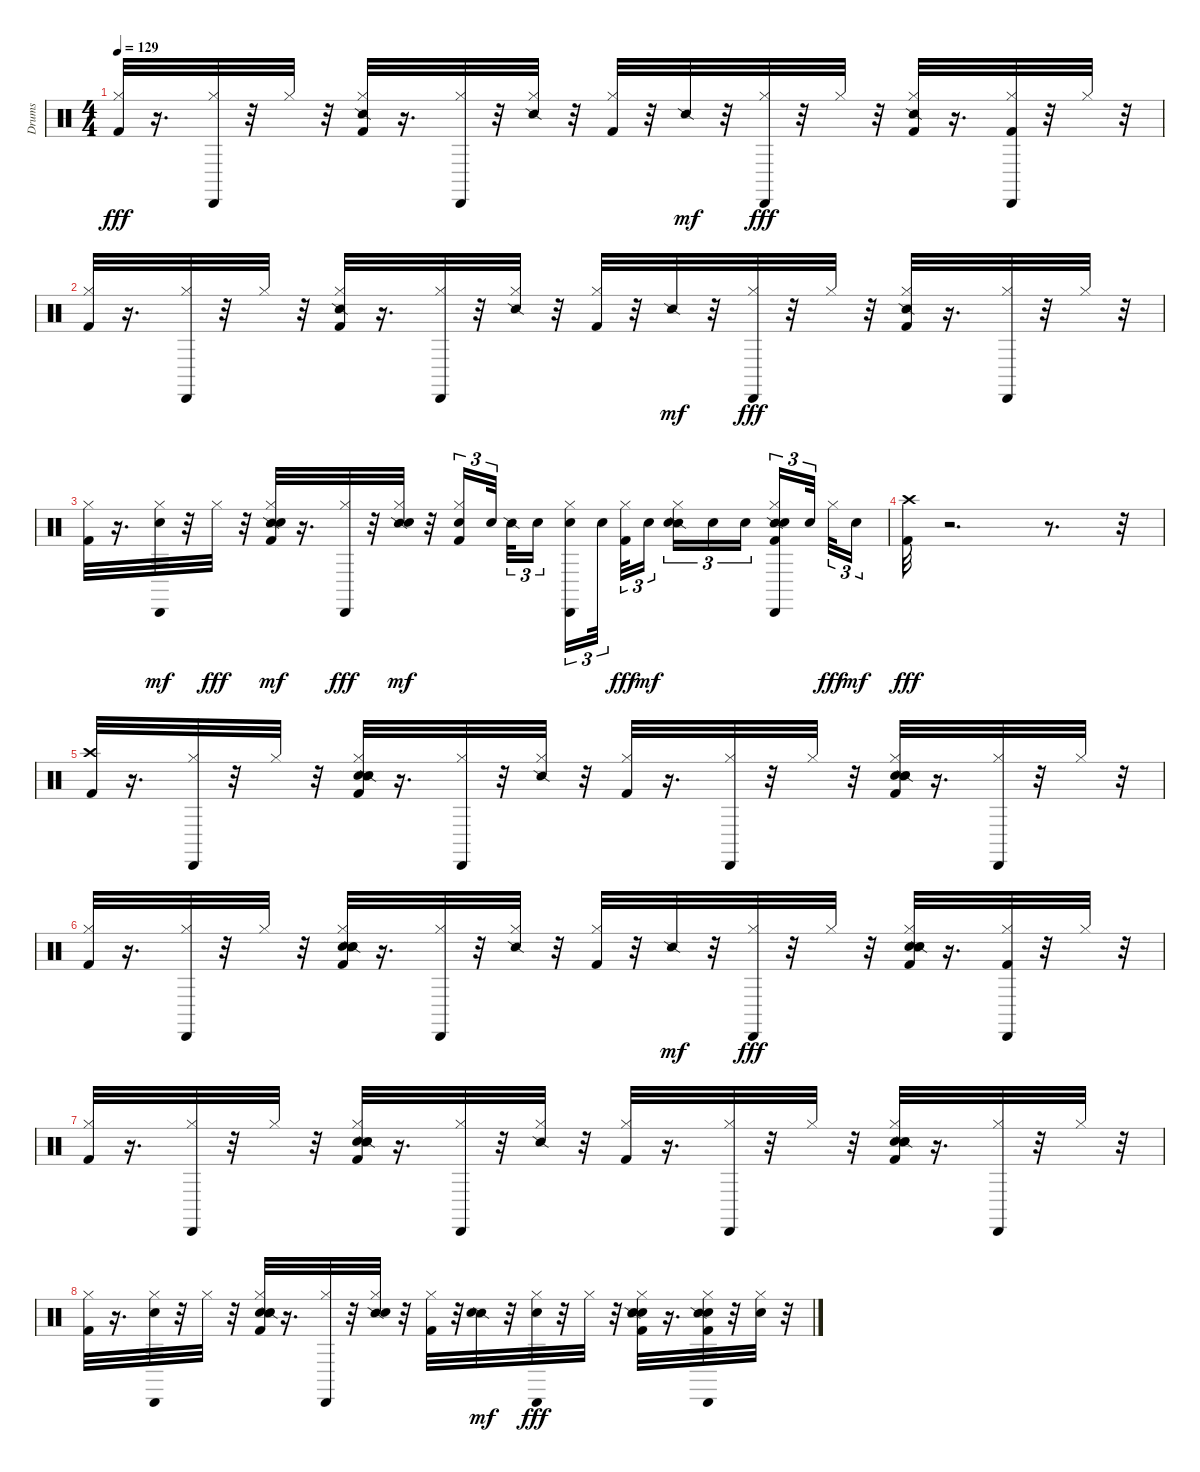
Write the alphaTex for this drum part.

\track ("Drums" "Drums") {instrument percussion}
\staff {score}
\articulation defaults
\ts (4 4)
\tempo 129
\clef neutral
\ks c
("Kick (hit) 2" "Hi-Hat (closed)").32{dy fff} r.16{d} ("Cabasa (hit)" "Hi-Hat (closed)").32 r.32 "Hi-Hat (closed)".32 r.32 ("Snare (side stick) 2" "Hi-Hat (closed)" "Kick (hit) 2").32 r.16{d} ("Cabasa (hit)" "Hi-Hat (closed)").32 r.32 ("Snare (side stick) 2" "Hi-Hat (closed)").32 r.32 ("Kick (hit) 2" "Hi-Hat (closed)").32 r.32 "Snare (side stick) 2".32{dy mf} r.32 ("Cabasa (hit)" "Hi-Hat (closed)").32{dy fff} r.32 "Hi-Hat (closed)".32 r.32 ("Snare (side stick) 2" "Hi-Hat (closed)" "Kick (hit) 2").32 r.16{d} ("Kick (hit) 2" "Cabasa (hit)" "Hi-Hat (closed)").32 r.32 "Hi-Hat (closed)".32 r.32 |
("Kick (hit) 2" "Hi-Hat (closed)").32 r.16{d} ("Cabasa (hit)" "Hi-Hat (closed)").32 r.32 "Hi-Hat (closed)".32 r.32 ("Snare (side stick) 2" "Hi-Hat (closed)" "Kick (hit) 2").32 r.16{d} ("Cabasa (hit)" "Hi-Hat (closed)").32 r.32 ("Snare (side stick) 2" "Hi-Hat (closed)").32 r.32 ("Kick (hit) 2" "Hi-Hat (closed)").32 r.32 "Snare (side stick) 2".32{dy mf} r.32 ("Cabasa (hit)" "Hi-Hat (closed)").32{dy fff} r.32 "Hi-Hat (closed)".32 r.32 ("Snare (side stick) 2" "Hi-Hat (closed)" "Kick (hit) 2").32 r.16{d} ("Cabasa (hit)" "Hi-Hat (closed)").32 r.32 "Hi-Hat (closed)".32 r.32 |
("Kick (hit) 2" "Hi-Hat (closed)").32 r.16{d} ("Cabasa (hit)" "Hi-Hat (closed)" "Hand Clap (hit)").32{dy mf} r.32 "Hi-Hat (closed)".32{dy fff} r.32 ("Snare (side stick) 2" "Hi-Hat (closed)" "Kick (hit) 2" "Hand Clap (hit)").32{dy mf} r.16{d} ("Cabasa (hit)" "Hi-Hat (closed)").32{dy fff} r.32 ("Snare (side stick) 2" "Hi-Hat (closed)" "Hand Clap (hit)").32{dy mf} r.32 ("Kick (hit) 2" "Hi-Hat (closed)" "Hand Clap (hit)").16{tu (3 2)} "Hand Clap (hit)".32{tu (3 2) beam splitsecondary} "Snare (side stick) 2".32{tu (3 2)} "Hand Clap (hit)".16{tu (3 2) beam splitsecondary} ("Cabasa (hit)" "Hi-Hat (closed)" "Hand Clap (hit)").16{tu (3 2)} "Hand Clap (hit)".32{tu (3 2) beam splitsecondary} ("Hi-Hat (closed)" "Kick (hit) 2").32{tu (3 2) dy fff} "Hand Clap (hit)".16{tu (3 2) dy mf} ("Snare (side stick) 2" "Hi-Hat (closed)" "Hand Clap (hit)").16{tu (3 2)} "Hand Clap (hit)".16{tu (3 2)} "Hand Clap (hit)".16{tu (3 2) beam splitsecondary} ("Kick (hit) 2" "Cabasa (hit)" "Hi-Hat (closed)" "Snare (side stick) 2" "Hand Clap (hit)").16{tu (3 2)} "Hand Clap (hit)".32{tu (3 2) beam splitsecondary} "Hi-Hat (closed)".32{tu (3 2) dy fff} "Hand Clap (hit)".16{tu (3 2) dy mf} |
("Kick (hit) 2" "Crash high (hit)").32{dy fff} r.2{d} r.8{d} r.32 |
("Kick (hit) 2" "Crash high (hit)").32 r.16{d} ("Cabasa (hit)" "Hi-Hat (closed)").32 r.32 "Hi-Hat (closed)".32 r.32 ("Snare (hit)" "Hand Clap (hit)" "Snare (side stick) 2" "Hi-Hat (closed)" "Kick (hit) 2").32 r.16{d} ("Cabasa (hit)" "Hi-Hat (closed)").32 r.32 ("Snare (side stick) 2" "Hi-Hat (closed)").32 r.32 ("Kick (hit) 2" "Hi-Hat (closed)").32 r.16{d} ("Cabasa (hit)" "Hi-Hat (closed)").32 r.32 "Hi-Hat (closed)".32 r.32 ("Snare (hit)" "Hand Clap (hit)" "Snare (side stick) 2" "Hi-Hat (closed)" "Kick (hit) 2").32 r.16{d} ("Cabasa (hit)" "Hi-Hat (closed)").32 r.32 "Hi-Hat (closed)".32 r.32 |
("Kick (hit) 2" "Hi-Hat (closed)").32 r.16{d} ("Cabasa (hit)" "Hi-Hat (closed)").32 r.32 "Hi-Hat (closed)".32 r.32 ("Snare (hit)" "Hand Clap (hit)" "Snare (side stick) 2" "Hi-Hat (closed)" "Kick (hit) 2").32 r.16{d} ("Cabasa (hit)" "Hi-Hat (closed)").32 r.32 ("Snare (side stick) 2" "Hi-Hat (closed)").32 r.32 ("Kick (hit) 2" "Hi-Hat (closed)").32 r.32 "Snare (side stick) 2".32{dy mf} r.32 ("Cabasa (hit)" "Hi-Hat (closed)").32{dy fff} r.32 "Hi-Hat (closed)".32 r.32 ("Snare (hit)" "Hand Clap (hit)" "Snare (side stick) 2" "Hi-Hat (closed)" "Kick (hit) 2").32 r.16{d} ("Kick (hit) 2" "Cabasa (hit)" "Hi-Hat (closed)").32 r.32 "Hi-Hat (closed)".32 r.32 |
("Kick (hit) 2" "Hi-Hat (closed)").32 r.16{d} ("Cabasa (hit)" "Hi-Hat (closed)").32 r.32 "Hi-Hat (closed)".32 r.32 ("Snare (hit)" "Snare (side stick) 2" "Hi-Hat (closed)" "Kick (hit) 2" "Hand Clap (hit)").32 r.16{d} ("Cabasa (hit)" "Hi-Hat (closed)").32 r.32 ("Snare (side stick) 2" "Hi-Hat (closed)").32 r.32 ("Kick (hit) 2" "Hi-Hat (closed)").32 r.16{d} ("Cabasa (hit)" "Hi-Hat (closed)").32 r.32 "Hi-Hat (closed)".32 r.32 ("Snare (hit)" "Snare (side stick) 2" "Hi-Hat (closed)" "Kick (hit) 2" "Hand Clap (hit)").32 r.16{d} ("Cabasa (hit)" "Hi-Hat (closed)").32 r.32 "Hi-Hat (closed)".32 r.32 |
("Kick (hit) 2" "Hi-Hat (closed)").32 r.16{d} ("Cabasa (hit)" "Hi-Hat (closed)" "Hand Clap (hit)").32 r.32 "Hi-Hat (closed)".32 r.32 ("Snare (hit)" "Snare (side stick) 2" "Hi-Hat (closed)" "Kick (hit) 2" "Hand Clap (hit)").32 r.16{d} ("Cabasa (hit)" "Hi-Hat (closed)").32 r.32 ("Snare (side stick) 2" "Hi-Hat (closed)" "Hand Clap (hit)").32 r.32 ("Kick (hit) 2" "Hi-Hat (closed)").32 r.32 ("Snare (side stick) 2" "Hand Clap (hit)").32{dy mf} r.32 ("Cabasa (hit)" "Hi-Hat (closed)" "Hand Clap (hit)").32{dy fff} r.32 "Hi-Hat (closed)".32 r.32 ("Snare (hit)" "Snare (side stick) 2" "Hi-Hat (closed)" "Kick (hit) 2" "Hand Clap (hit)").32 r.16{d} ("Kick (hit) 2" "Cabasa (hit)" "Hi-Hat (closed)" "Hand Clap (hit)" "Snare (side stick) 2").32 r.32 ("Hi-Hat (closed)" "Hand Clap (hit)").32 r.32
